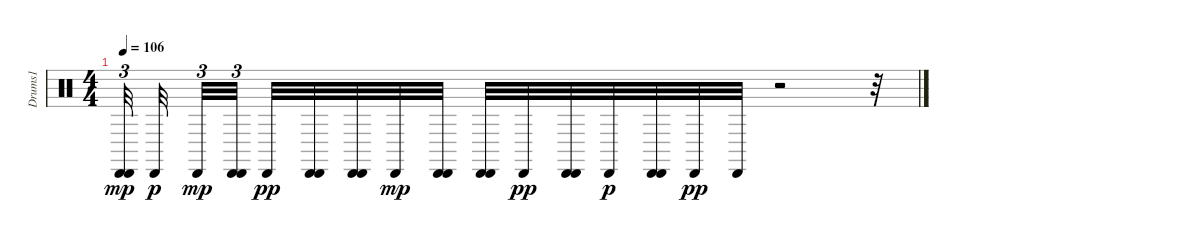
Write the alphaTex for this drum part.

\track ("Drums1" "Drums1") {instrument percussion}
\staff {score}
\articulation defaults
\ts (4 4)
\tempo 106
\clef neutral
\ks c
("Cabasa (hit)" "Cabasa (hit)").32{tu (3 2) dy mp} "Cabasa (hit)".32{dy p} "Cabasa (hit)".32{tu (3 2) dy mp} ("Cabasa (hit)" "Cabasa (hit)").32{tu (3 2)} "Cabasa (hit)".32{dy pp} ("Cabasa (hit)" "Cabasa (hit)").32 ("Cabasa (hit)" "Cabasa (hit)").32 "Cabasa (hit)".32{dy mp} ("Cabasa (hit)" "Cabasa (hit)").32 ("Cabasa (hit)" "Cabasa (hit)").32 "Cabasa (hit)".32{dy pp} ("Cabasa (hit)" "Cabasa (hit)").32 "Cabasa (hit)".32{dy p} ("Cabasa (hit)" "Cabasa (hit)").32 "Cabasa (hit)".32{dy pp} "Cabasa (hit)".32 r.2 r.32
